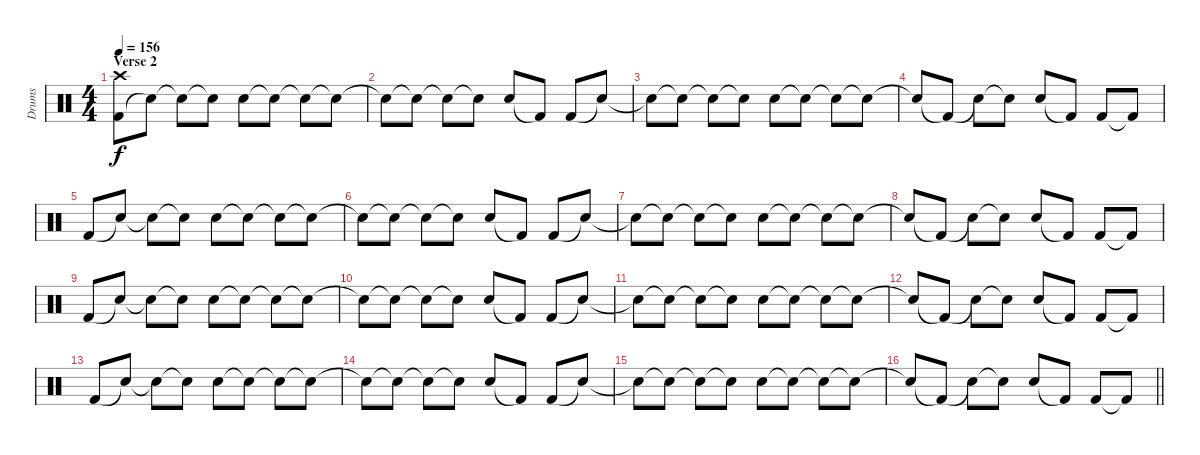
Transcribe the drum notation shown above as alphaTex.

\track ("Drums" "Drums") {instrument percussion}
\staff {score}
\articulation defaults
\ts (4 4)
\section ("" "Verse 2")
\tempo 156
\clef neutral
\ks c
("Kick (hit) 2" "Crash high (hit)").8{dy f} "Snare (hit)"{t}.8 "Electric Snare (hit)"{t}.8 "Electric Snare (hit)"{t}.8 "Snare (hit) 2".8 "Snare (hit)"{t}.8 "Snare (hit)"{t}.8 "Snare (hit)"{t}.8 |
"Electric Snare (hit)"{t}.8 "Snare (hit)"{t}.8 "Snare (hit)"{t}.8 "Snare (hit)"{t}.8 "Snare (hit) 2".8 "Kick (hit) 2"{t}.8 "Kick (hit) 2".8 "Snare (hit)"{t}.8 |
"Snare (hit)"{t}.8 "Snare (hit)"{t}.8 "Electric Snare (hit)"{t}.8 "Snare (hit)"{t}.8 "Snare (hit) 2".8 "Snare (hit)"{t}.8 "Snare (hit)"{t}.8 "Snare (hit)"{t}.8 |
"Electric Snare (hit)"{t}.8 "Kick (hit) 2"{t}.8 "Snare (hit)"{t}.8 "Electric Snare (hit)"{t}.8 "Snare (hit) 2".8 "Kick (hit) 2"{t}.8 "Kick (hit) 2".8 "Kick (hit) 2"{t}.8 |
"Kick (hit) 2".8 "Snare (hit)"{t}.8 "Electric Snare (hit)"{t}.8 "Electric Snare (hit)"{t}.8 "Snare (hit) 2".8 "Snare (hit)"{t}.8 "Snare (hit)"{t}.8 "Snare (hit)"{t}.8 |
"Electric Snare (hit)"{t}.8 "Snare (hit)"{t}.8 "Snare (hit)"{t}.8 "Snare (hit)"{t}.8 "Snare (hit) 2".8 "Kick (hit) 2"{t}.8 "Kick (hit) 2".8 "Snare (hit)"{t}.8 |
"Snare (hit)"{t}.8 "Snare (hit)"{t}.8 "Electric Snare (hit)"{t}.8 "Snare (hit)"{t}.8 "Snare (hit) 2".8 "Snare (hit)"{t}.8 "Snare (hit)"{t}.8 "Snare (hit)"{t}.8 |
"Electric Snare (hit)"{t}.8 "Kick (hit) 2"{t}.8 "Snare (hit)"{t}.8 "Electric Snare (hit)"{t}.8 "Snare (hit) 2".8 "Kick (hit) 2"{t}.8 "Kick (hit) 2".8 "Kick (hit) 2"{t}.8 |
"Kick (hit) 2".8 "Snare (hit)"{t}.8 "Electric Snare (hit)"{t}.8 "Electric Snare (hit)"{t}.8 "Snare (hit) 2".8 "Snare (hit)"{t}.8 "Snare (hit)"{t}.8 "Snare (hit)"{t}.8 |
"Electric Snare (hit)"{t}.8 "Snare (hit)"{t}.8 "Snare (hit)"{t}.8 "Snare (hit)"{t}.8 "Snare (hit) 2".8 "Kick (hit) 2"{t}.8 "Kick (hit) 2".8 "Snare (hit)"{t}.8 |
"Snare (hit)"{t}.8 "Snare (hit)"{t}.8 "Electric Snare (hit)"{t}.8 "Snare (hit)"{t}.8 "Snare (hit) 2".8 "Snare (hit)"{t}.8 "Snare (hit)"{t}.8 "Snare (hit)"{t}.8 |
"Electric Snare (hit)"{t}.8 "Kick (hit) 2"{t}.8 "Snare (hit)"{t}.8 "Electric Snare (hit)"{t}.8 "Snare (hit) 2".8 "Kick (hit) 2"{t}.8 "Kick (hit) 2".8 "Kick (hit) 2"{t}.8 |
"Kick (hit) 2".8 "Snare (hit)"{t}.8 "Electric Snare (hit)"{t}.8 "Electric Snare (hit)"{t}.8 "Snare (hit) 2".8 "Snare (hit)"{t}.8 "Snare (hit)"{t}.8 "Snare (hit)"{t}.8 |
"Electric Snare (hit)"{t}.8 "Snare (hit)"{t}.8 "Snare (hit)"{t}.8 "Snare (hit)"{t}.8 "Snare (hit) 2".8 "Kick (hit) 2"{t}.8 "Kick (hit) 2".8 "Snare (hit)"{t}.8 |
"Snare (hit)"{t}.8 "Snare (hit)"{t}.8 "Electric Snare (hit)"{t}.8 "Snare (hit)"{t}.8 "Snare (hit) 2".8 "Snare (hit)"{t}.8 "Snare (hit)"{t}.8 "Snare (hit)"{t}.8 |
\barLineRight lightlight "Electric Snare (hit)"{t}.8 "Kick (hit) 2"{t}.8 "Snare (hit)"{t}.8 "Electric Snare (hit)"{t}.8 "Snare (hit) 2".8 "Kick (hit) 2"{t}.8 "Kick (hit) 2".8 "Kick (hit) 2"{t}.8
